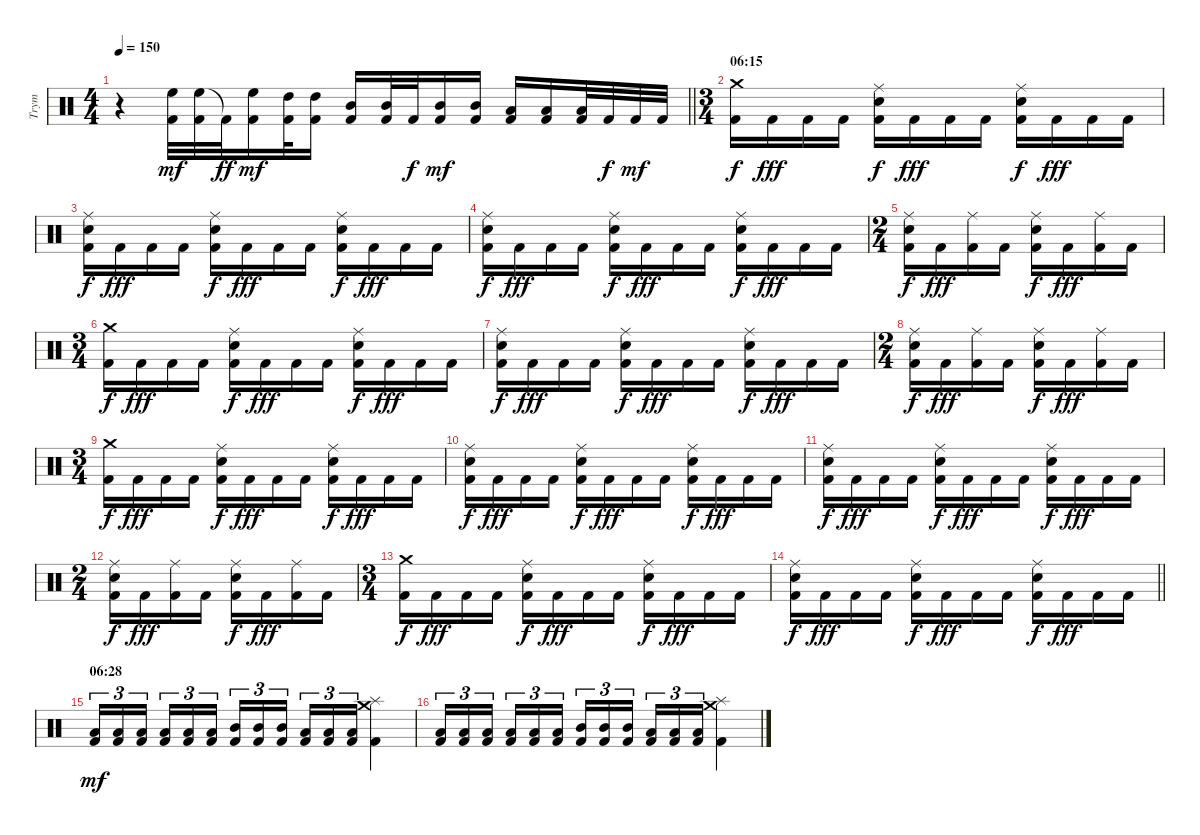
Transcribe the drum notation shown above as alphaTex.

\track ("Trym" "Trym") {instrument percussion}
\staff {score}
\articulation defaults
\ts (4 4)
\tempo 150
\clef neutral
\barLineRight lightlight
\ks c
r.4{dy fff} ("High Floor Tom (hit)" "Kick (hit) 2").32{dy mf} ("High Floor Tom (hit)" "Kick (hit) 2").32 "Kick (hit) 2"{t}.32{dy ff} ("High Floor Tom (hit)" "Kick (hit) 2").16{dy mf} ("High Tom (hit)" "Kick (hit) 2").32 ("High Tom (hit)" "Kick (hit) 2").16 ("Mid Tom (hit)" "Kick (hit) 2").16 ("Mid Tom (hit)" "Kick (hit) 2").32 "Kick (hit) 2".32{dy f} ("Mid Tom (hit)" "Kick (hit) 2").16{dy mf} ("Mid Tom (hit)" "Kick (hit) 2").16 ("Low Tom (hit)" "Kick (hit) 2").16 ("Low Tom (hit)" "Kick (hit) 2").16 ("Low Tom (hit)" "Kick (hit) 2").32 "Kick (hit) 2".32{dy f} "Kick (hit) 2".32{dy mf} "Kick (hit) 2".32 |
\ts (3 4)
\section ("" "06:15")
("Crash medium (hit)" "Kick (hit) 2").16{dy f} "Kick (hit) 2".16{dy fff} "Kick (hit) 2".16 "Kick (hit) 2".16 ("Snare (hit) 2" "Ride (middle)" "Kick (hit) 2").16{dy f} "Kick (hit) 2".16{dy fff} "Kick (hit) 2".16 "Kick (hit) 2".16 ("Snare (hit) 2" "Ride (middle)" "Kick (hit) 2").16{dy f} "Kick (hit) 2".16{dy fff} "Kick (hit) 2".16 "Kick (hit) 2".16 |
("Snare (hit) 2" "Ride (middle)" "Kick (hit) 2").16{dy f} "Kick (hit) 2".16{dy fff} "Kick (hit) 2".16 "Kick (hit) 2".16 ("Snare (hit) 2" "Ride (middle)" "Kick (hit) 2").16{dy f} "Kick (hit) 2".16{dy fff} "Kick (hit) 2".16 "Kick (hit) 2".16 ("Snare (hit) 2" "Ride (middle)" "Kick (hit) 2").16{dy f} "Kick (hit) 2".16{dy fff} "Kick (hit) 2".16 "Kick (hit) 2".16 |
("Snare (hit) 2" "Ride (middle)" "Kick (hit) 2").16{dy f} "Kick (hit) 2".16{dy fff} "Kick (hit) 2".16 "Kick (hit) 2".16 ("Snare (hit) 2" "Ride (middle)" "Kick (hit) 2").16{dy f} "Kick (hit) 2".16{dy fff} "Kick (hit) 2".16 "Kick (hit) 2".16 ("Snare (hit) 2" "Ride (middle)" "Kick (hit) 2").16{dy f} "Kick (hit) 2".16{dy fff} "Kick (hit) 2".16 "Kick (hit) 2".16 |
\ts (2 4)
("Snare (hit) 2" "Ride (middle)" "Kick (hit) 2").16{dy f} "Kick (hit) 2".16{dy fff} ("Ride (middle)" "Kick (hit) 2").16 "Kick (hit) 2".16 ("Snare (hit) 2" "Ride (middle)" "Kick (hit) 2").16{dy f} "Kick (hit) 2".16{dy fff} ("Ride (middle)" "Kick (hit) 2").16 "Kick (hit) 2".16 |
\ts (3 4)
("Crash medium (hit)" "Kick (hit) 2").16{dy f} "Kick (hit) 2".16{dy fff} "Kick (hit) 2".16 "Kick (hit) 2".16 ("Snare (hit) 2" "Ride (middle)" "Kick (hit) 2").16{dy f} "Kick (hit) 2".16{dy fff} "Kick (hit) 2".16 "Kick (hit) 2".16 ("Snare (hit) 2" "Ride (middle)" "Kick (hit) 2").16{dy f} "Kick (hit) 2".16{dy fff} "Kick (hit) 2".16 "Kick (hit) 2".16 |
("Snare (hit) 2" "Ride (middle)" "Kick (hit) 2").16{dy f} "Kick (hit) 2".16{dy fff} "Kick (hit) 2".16 "Kick (hit) 2".16 ("Snare (hit) 2" "Ride (middle)" "Kick (hit) 2").16{dy f} "Kick (hit) 2".16{dy fff} "Kick (hit) 2".16 "Kick (hit) 2".16 ("Snare (hit) 2" "Ride (middle)" "Kick (hit) 2").16{dy f} "Kick (hit) 2".16{dy fff} "Kick (hit) 2".16 "Kick (hit) 2".16 |
\ts (2 4)
("Snare (hit) 2" "Ride (middle)" "Kick (hit) 2").16{dy f} "Kick (hit) 2".16{dy fff} ("Ride (middle)" "Kick (hit) 2").16 "Kick (hit) 2".16 ("Snare (hit) 2" "Ride (middle)" "Kick (hit) 2").16{dy f} "Kick (hit) 2".16{dy fff} ("Ride (middle)" "Kick (hit) 2").16 "Kick (hit) 2".16 |
\ts (3 4)
("Crash medium (hit)" "Kick (hit) 2").16{dy f} "Kick (hit) 2".16{dy fff} "Kick (hit) 2".16 "Kick (hit) 2".16 ("Snare (hit) 2" "Ride (middle)" "Kick (hit) 2").16{dy f} "Kick (hit) 2".16{dy fff} "Kick (hit) 2".16 "Kick (hit) 2".16 ("Snare (hit) 2" "Ride (middle)" "Kick (hit) 2").16{dy f} "Kick (hit) 2".16{dy fff} "Kick (hit) 2".16 "Kick (hit) 2".16 |
("Snare (hit) 2" "Ride (middle)" "Kick (hit) 2").16{dy f} "Kick (hit) 2".16{dy fff} "Kick (hit) 2".16 "Kick (hit) 2".16 ("Snare (hit) 2" "Ride (middle)" "Kick (hit) 2").16{dy f} "Kick (hit) 2".16{dy fff} "Kick (hit) 2".16 "Kick (hit) 2".16 ("Snare (hit) 2" "Ride (middle)" "Kick (hit) 2").16{dy f} "Kick (hit) 2".16{dy fff} "Kick (hit) 2".16 "Kick (hit) 2".16 |
("Snare (hit) 2" "Ride (middle)" "Kick (hit) 2").16{dy f} "Kick (hit) 2".16{dy fff} "Kick (hit) 2".16 "Kick (hit) 2".16 ("Snare (hit) 2" "Ride (middle)" "Kick (hit) 2").16{dy f} "Kick (hit) 2".16{dy fff} "Kick (hit) 2".16 "Kick (hit) 2".16 ("Snare (hit) 2" "Ride (middle)" "Kick (hit) 2").16{dy f} "Kick (hit) 2".16{dy fff} "Kick (hit) 2".16 "Kick (hit) 2".16 |
\ts (2 4)
("Snare (hit) 2" "Ride (middle)" "Kick (hit) 2").16{dy f} "Kick (hit) 2".16{dy fff} ("Ride (middle)" "Kick (hit) 2").16 "Kick (hit) 2".16 ("Snare (hit) 2" "Ride (middle)" "Kick (hit) 2").16{dy f} "Kick (hit) 2".16{dy fff} ("Ride (middle)" "Kick (hit) 2").16 "Kick (hit) 2".16 |
\ts (3 4)
("Crash medium (hit)" "Kick (hit) 2").16{dy f} "Kick (hit) 2".16{dy fff} "Kick (hit) 2".16 "Kick (hit) 2".16 ("Snare (hit) 2" "Ride (middle)" "Kick (hit) 2").16{dy f} "Kick (hit) 2".16{dy fff} "Kick (hit) 2".16 "Kick (hit) 2".16 ("Snare (hit) 2" "Ride (middle)" "Kick (hit) 2").16{dy f} "Kick (hit) 2".16{dy fff} "Kick (hit) 2".16 "Kick (hit) 2".16 |
\barLineRight lightlight
("Snare (hit) 2" "Ride (middle)" "Kick (hit) 2").16{dy f} "Kick (hit) 2".16{dy fff} "Kick (hit) 2".16 "Kick (hit) 2".16 ("Snare (hit) 2" "Ride (middle)" "Kick (hit) 2").16{dy f} "Kick (hit) 2".16{dy fff} "Kick (hit) 2".16 "Kick (hit) 2".16 ("Snare (hit) 2" "Ride (middle)" "Kick (hit) 2").16{dy f} "Kick (hit) 2".16{dy fff} "Kick (hit) 2".16 "Kick (hit) 2".16 |
\section ("" "06:28")
("Low Floor Tom (hit)" "Kick (hit) 2").16{tu (3 2) dy mf} ("Low Floor Tom (hit)" "Kick (hit) 2").16{tu (3 2)} ("Low Floor Tom (hit)" "Kick (hit) 2").16{tu (3 2) beam splitsecondary} ("Low Tom (hit)" "Kick (hit) 2").16{tu (3 2)} ("Low Tom (hit)" "Kick (hit) 2").16{tu (3 2)} ("Low Tom (hit)" "Kick (hit) 2").16{tu (3 2)} ("Mid Tom (hit)" "Kick (hit) 2").16{tu (3 2)} ("Mid Tom (hit)" "Kick (hit) 2").16{tu (3 2)} ("Mid Tom (hit)" "Kick (hit) 2").16{tu (3 2) beam splitsecondary} ("Low Tom (hit)" "Kick (hit) 2").16{tu (3 2)} ("Low Tom (hit)" "Kick (hit) 2").16{tu (3 2)} ("Low Tom (hit)" "Kick (hit) 2").16{tu (3 2)} ("Crash medium (hit)" "Splash (hit)" "Kick (hit) 2").4 |
("Low Floor Tom (hit)" "Kick (hit) 2").16{tu (3 2)} ("Low Floor Tom (hit)" "Kick (hit) 2").16{tu (3 2)} ("Low Floor Tom (hit)" "Kick (hit) 2").16{tu (3 2) beam splitsecondary} ("Low Tom (hit)" "Kick (hit) 2").16{tu (3 2)} ("Low Tom (hit)" "Kick (hit) 2").16{tu (3 2)} ("Low Tom (hit)" "Kick (hit) 2").16{tu (3 2)} ("Mid Tom (hit)" "Kick (hit) 2").16{tu (3 2)} ("Mid Tom (hit)" "Kick (hit) 2").16{tu (3 2)} ("Mid Tom (hit)" "Kick (hit) 2").16{tu (3 2) beam splitsecondary} ("Low Tom (hit)" "Kick (hit) 2").16{tu (3 2)} ("Low Tom (hit)" "Kick (hit) 2").16{tu (3 2)} ("Low Tom (hit)" "Kick (hit) 2").16{tu (3 2)} ("Crash medium (hit)" "Splash (hit)" "Kick (hit) 2").4
